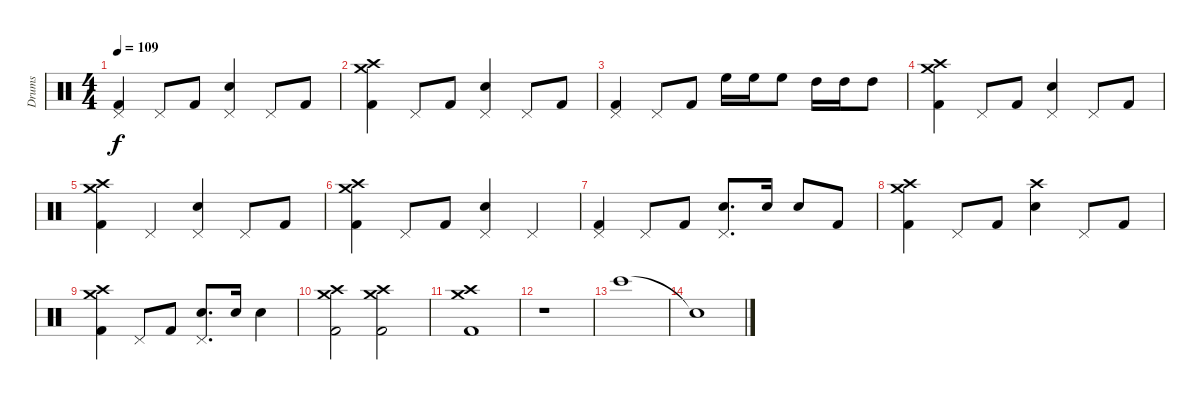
\track ("Drums" "Drums") {instrument percussion}
\staff {score}
\articulation defaults
\ts (4 4)
\tempo 109
\clef neutral
\ks c
("Pedal Hi-Hat (hit)" "Kick (hit) 2").4{dy f} "Pedal Hi-Hat (hit)".8 "Kick (hit) 2".8 ("Pedal Hi-Hat (hit)" "Electric Snare (hit)").4 "Pedal Hi-Hat (hit)".8 "Kick (hit) 2".8 |
("Crash high (hit)" "Crash medium (hit)" "Kick (hit) 2").4 "Pedal Hi-Hat (hit)".8 "Kick (hit) 2".8 ("Pedal Hi-Hat (hit)" "Electric Snare (hit)").4 "Pedal Hi-Hat (hit)".8 "Kick (hit) 2".8 |
("Pedal Hi-Hat (hit)" "Kick (hit) 2").4 "Pedal Hi-Hat (hit)".8 "Kick (hit) 2".8 "High Floor Tom (hit)".16 "High Floor Tom (hit)".16 "High Floor Tom (hit)".8 "High Tom (hit)".16 "High Tom (hit)".16 "High Tom (hit)".8 |
("Crash high (hit)" "Crash medium (hit)" "Kick (hit) 2").4 "Pedal Hi-Hat (hit)".8 "Kick (hit) 2".8 ("Pedal Hi-Hat (hit)" "Electric Snare (hit)").4 "Pedal Hi-Hat (hit)".8 "Kick (hit) 2".8 |
("Crash high (hit)" "Crash medium (hit)" "Kick (hit) 2").4 "Pedal Hi-Hat (hit)".4 ("Pedal Hi-Hat (hit)" "Electric Snare (hit)").4 "Pedal Hi-Hat (hit)".8 "Kick (hit) 2".8 |
("Crash high (hit)" "Crash medium (hit)" "Kick (hit) 2").4 "Pedal Hi-Hat (hit)".8 "Kick (hit) 2".8 ("Pedal Hi-Hat (hit)" "Electric Snare (hit)").4 "Pedal Hi-Hat (hit)".4 |
("Pedal Hi-Hat (hit)" "Kick (hit) 2").4 "Pedal Hi-Hat (hit)".8 "Kick (hit) 2".8 ("Pedal Hi-Hat (hit)" "Electric Snare (hit)").8{d} "Electric Snare (hit)".16 "Electric Snare (hit)".8 "Kick (hit) 2".8 |
("Crash high (hit)" "Crash medium (hit)" "Kick (hit) 2").4 "Pedal Hi-Hat (hit)".8 "Kick (hit) 2".8 ("Crash high (hit)" "Electric Snare (hit)").4 "Pedal Hi-Hat (hit)".8 "Kick (hit) 2".8 |
("Crash high (hit)" "Crash medium (hit)" "Kick (hit) 2").4 "Pedal Hi-Hat (hit)".8 "Kick (hit) 2".8 ("Pedal Hi-Hat (hit)" "Electric Snare (hit)").8{d} "Electric Snare (hit)".16 "Electric Snare (hit)".4 |
("Crash high (hit)" "Crash medium (hit)" "Kick (hit) 2").2 ("Crash high (hit)" "Crash medium (hit)" "Kick (hit) 2").2 |
("Crash high (hit)" "Crash medium (hit)" "Kick (hit) 2").1 |
r.1 |
"Bongo High (hit)".1 |
"Snare (hit)"{t}.1
